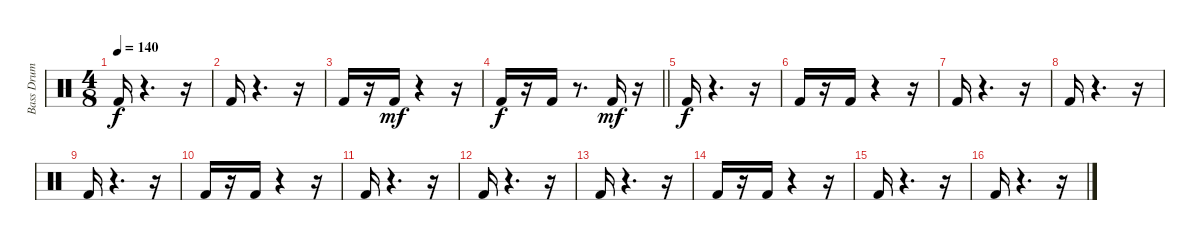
\track ("Bass Drum" "Bass Drum") {instrument percussion}
\staff {score}
\articulation defaults
\ts (4 8)
\tempo 140
\clef neutral
\ks c "Kick (hit) 2".16{dy f}
r.4{d} r.16 |
"Kick (hit) 2".16 r.4{d} r.16 |
"Kick (hit) 2".16 r.16 "Kick (hit) 2".16{dy mf} r.4 r.16 |
\barLineRight lightlight "Kick (hit) 2".16{dy f}
r.16 "Kick (hit) 2".16 r.8{d} "Kick (hit) 2".16{dy mf} r.16 |
"Kick (hit) 2".16{dy f} r.4{d} r.16 |
"Kick (hit) 2".16 r.16 "Kick (hit) 2".16 r.4 r.16 |
"Kick (hit) 2".16 r.4{d} r.16 |
"Kick (hit) 2".16 r.4{d} r.16 |
"Kick (hit) 2".16 r.4{d} r.16 |
"Kick (hit) 2".16 r.16 "Kick (hit) 2".16 r.4 r.16 |
"Kick (hit) 2".16 r.4{d} r.16 |
"Kick (hit) 2".16 r.4{d} r.16 |
"Kick (hit) 2".16 r.4{d} r.16 |
"Kick (hit) 2".16 r.16 "Kick (hit) 2".16 r.4 r.16 |
"Kick (hit) 2".16 r.4{d} r.16 |
"Kick (hit) 2".16 r.4{d} r.16
